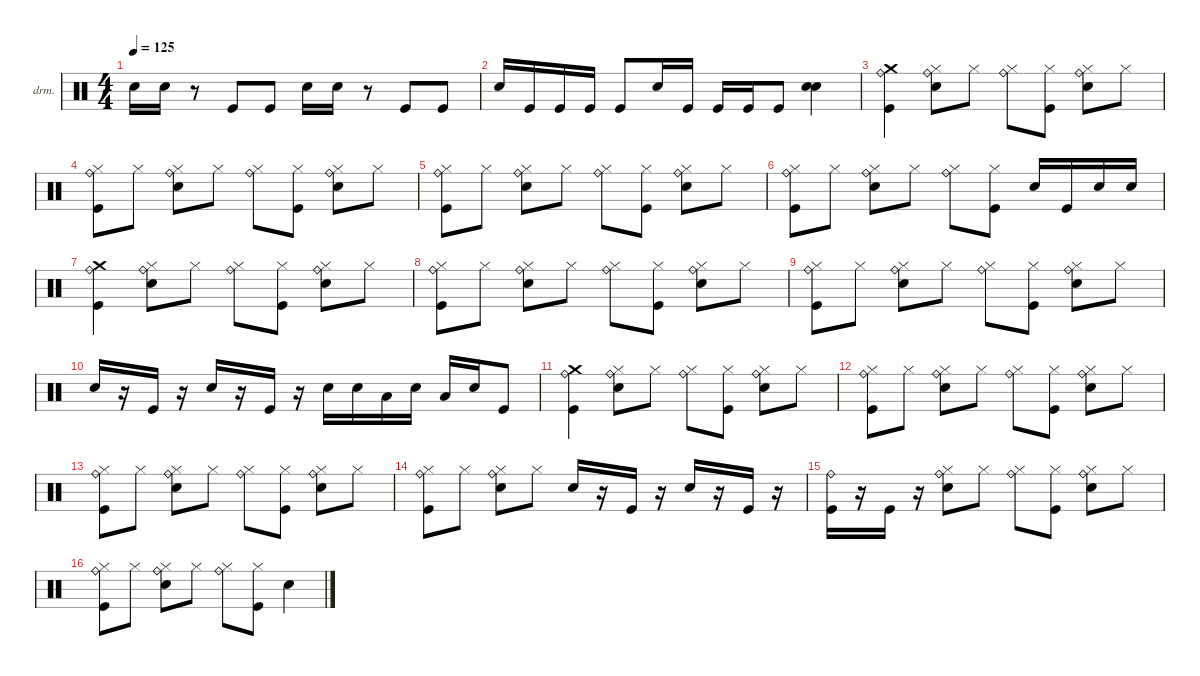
\defaultSystemsLayout 4
\hideDynamics
\bracketExtendMode nobrackets
\firstSystemTrackNameOrientation horizontal
\otherSystemsTrackNameOrientation horizontal
\track ("Drum" "drm.") {instrument percussion}
\staff {score}
\articulation defaults
\ts (4 4)
\beaming (8 2 2 2 2)
\tempo 125
\clef neutral
\ks c "Snare (hit) 2".16{dy f} "Snare (hit) 2".16
r.8 "Kick (hit)".8 "Kick (hit)".8 "Snare (hit) 2".16 "Snare (hit) 2".16 r.8 "Kick (hit)".8 "Kick (hit)".8 |
"Snare (hit) 2".16 "Kick (hit)".16 "Kick (hit)".16 "Kick (hit)".16 "Kick (hit)".8 "Snare (hit) 2".16 "Kick (hit)".16 "Kick (hit)".16 "Kick (hit)".16 "Kick (hit)".8 ("Snare (hit) 2" "Snare (hit) 2").4 |
("Kick (hit)" "Crash medium (hit)" "Ride (bell)").4 ("Snare (hit) 2" "Hi-Hat (closed)" "Ride (bell)").8 "Hi-Hat (closed)".8 ("Hi-Hat (closed)" "Ride (bell)").8 ("Kick (hit)" "Hi-Hat (closed)").8 ("Snare (hit) 2" "Hi-Hat (closed)" "Ride (bell)").8 "Hi-Hat (closed)".8 |
("Kick (hit)" "Hi-Hat (closed)" "Ride (bell)").8 "Hi-Hat (closed)".8 ("Snare (hit) 2" "Hi-Hat (closed)" "Ride (bell)").8 "Hi-Hat (closed)".8 ("Hi-Hat (closed)" "Ride (bell)").8 ("Kick (hit)" "Hi-Hat (closed)").8 ("Snare (hit) 2" "Hi-Hat (closed)" "Ride (bell)").8 "Hi-Hat (closed)".8 |
("Kick (hit)" "Hi-Hat (closed)" "Ride (bell)").8 "Hi-Hat (closed)".8 ("Snare (hit) 2" "Hi-Hat (closed)" "Ride (bell)").8 "Hi-Hat (closed)".8 ("Hi-Hat (closed)" "Ride (bell)").8 ("Kick (hit)" "Hi-Hat (closed)").8 ("Snare (hit) 2" "Hi-Hat (closed)" "Ride (bell)").8 "Hi-Hat (closed)".8 |
("Kick (hit)" "Hi-Hat (closed)" "Ride (bell)").8 "Hi-Hat (closed)".8 ("Snare (hit) 2" "Hi-Hat (closed)" "Ride (bell)").8 "Hi-Hat (closed)".8 ("Hi-Hat (closed)" "Ride (bell)").8 ("Kick (hit)" "Hi-Hat (closed)").8 "Snare (hit) 2".16 "Kick (hit)".16 "Snare (hit) 2".16 "Snare (hit) 2".16 |
("Kick (hit)" "Crash medium (hit)" "Ride (bell)").4 ("Snare (hit) 2" "Hi-Hat (closed)" "Ride (bell)").8 "Hi-Hat (closed)".8 ("Hi-Hat (closed)" "Ride (bell)").8 ("Kick (hit)" "Hi-Hat (closed)").8 ("Snare (hit) 2" "Hi-Hat (closed)" "Ride (bell)").8 "Hi-Hat (closed)".8 |
("Kick (hit)" "Hi-Hat (closed)" "Ride (bell)").8 "Hi-Hat (closed)".8 ("Snare (hit) 2" "Hi-Hat (closed)" "Ride (bell)").8 "Hi-Hat (closed)".8 ("Hi-Hat (closed)" "Ride (bell)").8 ("Kick (hit)" "Hi-Hat (closed)").8 ("Snare (hit) 2" "Hi-Hat (closed)" "Ride (bell)").8 "Hi-Hat (closed)".8 |
("Kick (hit)" "Hi-Hat (closed)" "Ride (bell)").8 "Hi-Hat (closed)".8 ("Snare (hit) 2" "Hi-Hat (closed)" "Ride (bell)").8 "Hi-Hat (closed)".8 ("Hi-Hat (closed)" "Ride (bell)").8 ("Kick (hit)" "Hi-Hat (closed)").8 ("Snare (hit) 2" "Hi-Hat (closed)" "Ride (bell)").8 "Hi-Hat (closed)".8 |
"Snare (hit) 2".16 r.16 "Kick (hit)".16 r.16 "Snare (hit) 2".16 r.16 "Kick (hit)".16 r.16 "Snare (hit) 2".16 "Snare (hit) 2".16 "Low Tom (hit)".16 "Snare (hit) 2".16 "Low Tom (hit)".16 "Snare (hit) 2".16 "Kick (hit)".8 |
("Kick (hit)" "Crash medium (hit)" "Ride (bell)").4 ("Snare (hit) 2" "Hi-Hat (closed)" "Ride (bell)").8 "Hi-Hat (closed)".8 ("Hi-Hat (closed)" "Ride (bell)").8 ("Kick (hit)" "Hi-Hat (closed)").8 ("Snare (hit) 2" "Hi-Hat (closed)" "Ride (bell)").8 "Hi-Hat (closed)".8 |
("Kick (hit)" "Hi-Hat (closed)" "Ride (bell)").8 "Hi-Hat (closed)".8 ("Snare (hit) 2" "Hi-Hat (closed)" "Ride (bell)").8 "Hi-Hat (closed)".8 ("Hi-Hat (closed)" "Ride (bell)").8 ("Kick (hit)" "Hi-Hat (closed)").8 ("Snare (hit) 2" "Hi-Hat (closed)" "Ride (bell)").8 "Hi-Hat (closed)".8 |
("Kick (hit)" "Hi-Hat (closed)" "Ride (bell)").8 "Hi-Hat (closed)".8 ("Snare (hit) 2" "Hi-Hat (closed)" "Ride (bell)").8 "Hi-Hat (closed)".8 ("Hi-Hat (closed)" "Ride (bell)").8 ("Kick (hit)" "Hi-Hat (closed)").8 ("Snare (hit) 2" "Hi-Hat (closed)" "Ride (bell)").8 "Hi-Hat (closed)".8 |
("Kick (hit)" "Hi-Hat (closed)" "Ride (bell)").8 "Hi-Hat (closed)".8 ("Snare (hit) 2" "Hi-Hat (closed)" "Ride (bell)").8 "Hi-Hat (closed)".8 "Snare (hit) 2".16 r.16 "Kick (hit)".16 r.16 "Snare (hit) 2".16 r.16 "Kick (hit)".16 r.16 |
("Kick (hit)" "Ride (bell)").16 r.16 "Kick (hit)".16 r.16 ("Snare (hit) 2" "Hi-Hat (closed)" "Ride (bell)").8 "Hi-Hat (closed)".8 ("Hi-Hat (closed)" "Ride (bell)").8 ("Kick (hit)" "Hi-Hat (closed)").8 ("Snare (hit) 2" "Hi-Hat (closed)" "Ride (bell)").8 "Hi-Hat (closed)".8 |
("Kick (hit)" "Hi-Hat (closed)" "Ride (bell)").8 "Hi-Hat (closed)".8 ("Snare (hit) 2" "Hi-Hat (closed)" "Ride (bell)").8 "Hi-Hat (closed)".8 ("Hi-Hat (closed)" "Ride (bell)").8 ("Kick (hit)" "Hi-Hat (closed)").8 "Snare (hit) 2".4
